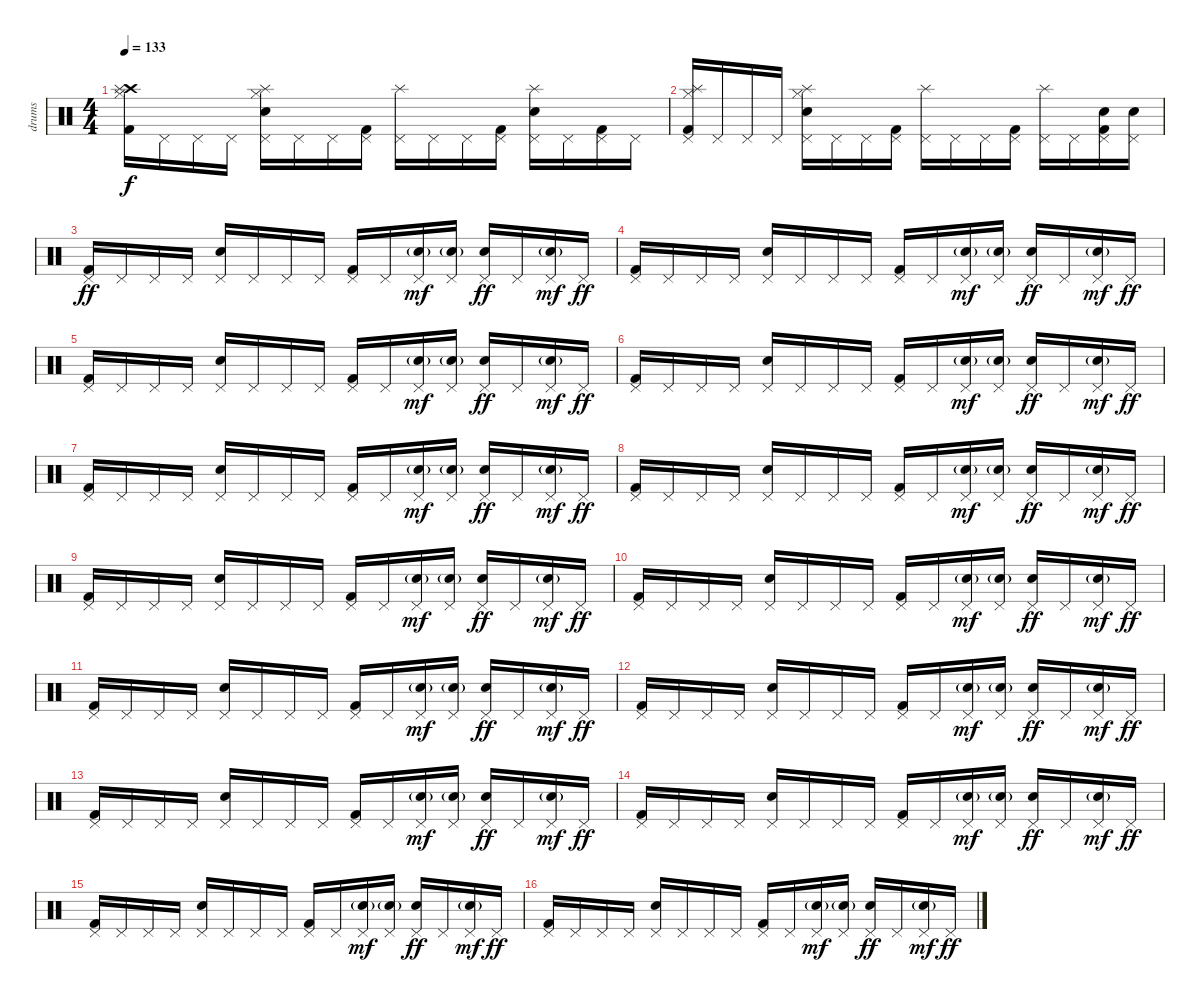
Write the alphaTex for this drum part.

\track ("drums" "drums") {instrument percussion}
\staff {score}
\articulation defaults
\ts (4 4)
\tempo 133
\clef neutral
\ks c
("Kick (hit) 2" "Hi-Hat (closed)" "Crash high (hit)" "Splash (hit)").16{dy f} "Pedal Hi-Hat (hit)".16 "Pedal Hi-Hat (hit)".16 "Pedal Hi-Hat (hit)".16 ("Snare (hit) 2" "Hi-Hat (closed)" "Pedal Hi-Hat (hit)" "Splash (hit)").16 "Pedal Hi-Hat (hit)".16 "Pedal Hi-Hat (hit)".16 ("Kick (hit) 2" "Pedal Hi-Hat (hit)").16 ("Pedal Hi-Hat (hit)" "Splash (hit)").16 "Pedal Hi-Hat (hit)".16 "Pedal Hi-Hat (hit)".16 ("Kick (hit) 2" "Pedal Hi-Hat (hit)").16 ("Snare (hit) 2" "Pedal Hi-Hat (hit)" "Splash (hit)").16 "Pedal Hi-Hat (hit)".16 ("Kick (hit) 2" "Pedal Hi-Hat (hit)").16 "Pedal Hi-Hat (hit)".16 |
("Kick (hit) 2" "Hi-Hat (closed)" "Pedal Hi-Hat (hit)" "Splash (hit)").16 "Pedal Hi-Hat (hit)".16 "Pedal Hi-Hat (hit)".16 "Pedal Hi-Hat (hit)".16 ("Snare (hit) 2" "Hi-Hat (closed)" "Pedal Hi-Hat (hit)" "Splash (hit)").16 "Pedal Hi-Hat (hit)".16 "Pedal Hi-Hat (hit)".16 ("Kick (hit) 2" "Pedal Hi-Hat (hit)").16 ("Pedal Hi-Hat (hit)" "Splash (hit)").16 "Pedal Hi-Hat (hit)".16 "Pedal Hi-Hat (hit)".16 ("Kick (hit) 2" "Pedal Hi-Hat (hit)").16 ("Pedal Hi-Hat (hit)" "Splash (hit)").16 "Pedal Hi-Hat (hit)".16 ("Snare (hit) 2" "Kick (hit) 2" "Pedal Hi-Hat (hit)").16 ("Snare (hit) 2" "Pedal Hi-Hat (hit)").16 |
("Kick (hit) 2" "Pedal Hi-Hat (hit)").16{dy ff} "Pedal Hi-Hat (hit)".16 "Pedal Hi-Hat (hit)".16 "Pedal Hi-Hat (hit)".16 ("Snare (hit) 2" "Pedal Hi-Hat (hit)").16 "Pedal Hi-Hat (hit)".16 "Pedal Hi-Hat (hit)".16 "Pedal Hi-Hat (hit)".16 ("Kick (hit) 2" "Pedal Hi-Hat (hit)").16 "Pedal Hi-Hat (hit)".16 ("Pedal Hi-Hat (hit)" "Electric Snare (hit)"{g}).16{dy mf} ("Pedal Hi-Hat (hit)" "Electric Snare (hit)"{g}).16 ("Snare (hit) 2" "Pedal Hi-Hat (hit)").16{dy ff} "Pedal Hi-Hat (hit)".16 ("Pedal Hi-Hat (hit)" "Electric Snare (hit)"{g}).16{dy mf} "Pedal Hi-Hat (hit)".16{dy ff} |
("Kick (hit) 2" "Pedal Hi-Hat (hit)").16 "Pedal Hi-Hat (hit)".16 "Pedal Hi-Hat (hit)".16 "Pedal Hi-Hat (hit)".16 ("Snare (hit) 2" "Pedal Hi-Hat (hit)").16 "Pedal Hi-Hat (hit)".16 "Pedal Hi-Hat (hit)".16 "Pedal Hi-Hat (hit)".16 ("Kick (hit) 2" "Pedal Hi-Hat (hit)").16 "Pedal Hi-Hat (hit)".16 ("Pedal Hi-Hat (hit)" "Electric Snare (hit)"{g}).16{dy mf} ("Pedal Hi-Hat (hit)" "Electric Snare (hit)"{g}).16 ("Snare (hit) 2" "Pedal Hi-Hat (hit)").16{dy ff} "Pedal Hi-Hat (hit)".16 ("Pedal Hi-Hat (hit)" "Electric Snare (hit)"{g}).16{dy mf} "Pedal Hi-Hat (hit)".16{dy ff} |
("Kick (hit) 2" "Pedal Hi-Hat (hit)").16 "Pedal Hi-Hat (hit)".16 "Pedal Hi-Hat (hit)".16 "Pedal Hi-Hat (hit)".16 ("Snare (hit) 2" "Pedal Hi-Hat (hit)").16 "Pedal Hi-Hat (hit)".16 "Pedal Hi-Hat (hit)".16 "Pedal Hi-Hat (hit)".16 ("Kick (hit) 2" "Pedal Hi-Hat (hit)").16 "Pedal Hi-Hat (hit)".16 ("Pedal Hi-Hat (hit)" "Electric Snare (hit)"{g}).16{dy mf} ("Pedal Hi-Hat (hit)" "Electric Snare (hit)"{g}).16 ("Snare (hit) 2" "Pedal Hi-Hat (hit)").16{dy ff} "Pedal Hi-Hat (hit)".16 ("Pedal Hi-Hat (hit)" "Electric Snare (hit)"{g}).16{dy mf} "Pedal Hi-Hat (hit)".16{dy ff} |
("Kick (hit) 2" "Pedal Hi-Hat (hit)").16 "Pedal Hi-Hat (hit)".16 "Pedal Hi-Hat (hit)".16 "Pedal Hi-Hat (hit)".16 ("Snare (hit) 2" "Pedal Hi-Hat (hit)").16 "Pedal Hi-Hat (hit)".16 "Pedal Hi-Hat (hit)".16 "Pedal Hi-Hat (hit)".16 ("Kick (hit) 2" "Pedal Hi-Hat (hit)").16 "Pedal Hi-Hat (hit)".16 ("Pedal Hi-Hat (hit)" "Electric Snare (hit)"{g}).16{dy mf} ("Pedal Hi-Hat (hit)" "Electric Snare (hit)"{g}).16 ("Snare (hit) 2" "Pedal Hi-Hat (hit)").16{dy ff} "Pedal Hi-Hat (hit)".16 ("Pedal Hi-Hat (hit)" "Electric Snare (hit)"{g}).16{dy mf} "Pedal Hi-Hat (hit)".16{dy ff} |
("Kick (hit) 2" "Pedal Hi-Hat (hit)").16 "Pedal Hi-Hat (hit)".16 "Pedal Hi-Hat (hit)".16 "Pedal Hi-Hat (hit)".16 ("Snare (hit) 2" "Pedal Hi-Hat (hit)").16 "Pedal Hi-Hat (hit)".16 "Pedal Hi-Hat (hit)".16 "Pedal Hi-Hat (hit)".16 ("Kick (hit) 2" "Pedal Hi-Hat (hit)").16 "Pedal Hi-Hat (hit)".16 ("Pedal Hi-Hat (hit)" "Electric Snare (hit)"{g}).16{dy mf} ("Pedal Hi-Hat (hit)" "Electric Snare (hit)"{g}).16 ("Snare (hit) 2" "Pedal Hi-Hat (hit)").16{dy ff} "Pedal Hi-Hat (hit)".16 ("Pedal Hi-Hat (hit)" "Electric Snare (hit)"{g}).16{dy mf} "Pedal Hi-Hat (hit)".16{dy ff} |
("Kick (hit) 2" "Pedal Hi-Hat (hit)").16 "Pedal Hi-Hat (hit)".16 "Pedal Hi-Hat (hit)".16 "Pedal Hi-Hat (hit)".16 ("Snare (hit) 2" "Pedal Hi-Hat (hit)").16 "Pedal Hi-Hat (hit)".16 "Pedal Hi-Hat (hit)".16 "Pedal Hi-Hat (hit)".16 ("Kick (hit) 2" "Pedal Hi-Hat (hit)").16 "Pedal Hi-Hat (hit)".16 ("Pedal Hi-Hat (hit)" "Electric Snare (hit)"{g}).16{dy mf} ("Pedal Hi-Hat (hit)" "Electric Snare (hit)"{g}).16 ("Snare (hit) 2" "Pedal Hi-Hat (hit)").16{dy ff} "Pedal Hi-Hat (hit)".16 ("Pedal Hi-Hat (hit)" "Electric Snare (hit)"{g}).16{dy mf} "Pedal Hi-Hat (hit)".16{dy ff} |
("Kick (hit) 2" "Pedal Hi-Hat (hit)").16 "Pedal Hi-Hat (hit)".16 "Pedal Hi-Hat (hit)".16 "Pedal Hi-Hat (hit)".16 ("Snare (hit) 2" "Pedal Hi-Hat (hit)").16 "Pedal Hi-Hat (hit)".16 "Pedal Hi-Hat (hit)".16 "Pedal Hi-Hat (hit)".16 ("Kick (hit) 2" "Pedal Hi-Hat (hit)").16 "Pedal Hi-Hat (hit)".16 ("Pedal Hi-Hat (hit)" "Electric Snare (hit)"{g}).16{dy mf} ("Pedal Hi-Hat (hit)" "Electric Snare (hit)"{g}).16 ("Snare (hit) 2" "Pedal Hi-Hat (hit)").16{dy ff} "Pedal Hi-Hat (hit)".16 ("Pedal Hi-Hat (hit)" "Electric Snare (hit)"{g}).16{dy mf} "Pedal Hi-Hat (hit)".16{dy ff} |
("Kick (hit) 2" "Pedal Hi-Hat (hit)").16 "Pedal Hi-Hat (hit)".16 "Pedal Hi-Hat (hit)".16 "Pedal Hi-Hat (hit)".16 ("Snare (hit) 2" "Pedal Hi-Hat (hit)").16 "Pedal Hi-Hat (hit)".16 "Pedal Hi-Hat (hit)".16 "Pedal Hi-Hat (hit)".16 ("Kick (hit) 2" "Pedal Hi-Hat (hit)").16 "Pedal Hi-Hat (hit)".16 ("Pedal Hi-Hat (hit)" "Electric Snare (hit)"{g}).16{dy mf} ("Pedal Hi-Hat (hit)" "Electric Snare (hit)"{g}).16 ("Snare (hit) 2" "Pedal Hi-Hat (hit)").16{dy ff} "Pedal Hi-Hat (hit)".16 ("Pedal Hi-Hat (hit)" "Electric Snare (hit)"{g}).16{dy mf} "Pedal Hi-Hat (hit)".16{dy ff} |
("Kick (hit) 2" "Pedal Hi-Hat (hit)").16 "Pedal Hi-Hat (hit)".16 "Pedal Hi-Hat (hit)".16 "Pedal Hi-Hat (hit)".16 ("Snare (hit) 2" "Pedal Hi-Hat (hit)").16 "Pedal Hi-Hat (hit)".16 "Pedal Hi-Hat (hit)".16 "Pedal Hi-Hat (hit)".16 ("Kick (hit) 2" "Pedal Hi-Hat (hit)").16 "Pedal Hi-Hat (hit)".16 ("Pedal Hi-Hat (hit)" "Electric Snare (hit)"{g}).16{dy mf} ("Pedal Hi-Hat (hit)" "Electric Snare (hit)"{g}).16 ("Snare (hit) 2" "Pedal Hi-Hat (hit)").16{dy ff} "Pedal Hi-Hat (hit)".16 ("Pedal Hi-Hat (hit)" "Electric Snare (hit)"{g}).16{dy mf} "Pedal Hi-Hat (hit)".16{dy ff} |
("Kick (hit) 2" "Pedal Hi-Hat (hit)").16 "Pedal Hi-Hat (hit)".16 "Pedal Hi-Hat (hit)".16 "Pedal Hi-Hat (hit)".16 ("Snare (hit) 2" "Pedal Hi-Hat (hit)").16 "Pedal Hi-Hat (hit)".16 "Pedal Hi-Hat (hit)".16 "Pedal Hi-Hat (hit)".16 ("Kick (hit) 2" "Pedal Hi-Hat (hit)").16 "Pedal Hi-Hat (hit)".16 ("Pedal Hi-Hat (hit)" "Electric Snare (hit)"{g}).16{dy mf} ("Pedal Hi-Hat (hit)" "Electric Snare (hit)"{g}).16 ("Snare (hit) 2" "Pedal Hi-Hat (hit)").16{dy ff} "Pedal Hi-Hat (hit)".16 ("Pedal Hi-Hat (hit)" "Electric Snare (hit)"{g}).16{dy mf} "Pedal Hi-Hat (hit)".16{dy ff} |
("Kick (hit) 2" "Pedal Hi-Hat (hit)").16 "Pedal Hi-Hat (hit)".16 "Pedal Hi-Hat (hit)".16 "Pedal Hi-Hat (hit)".16 ("Snare (hit) 2" "Pedal Hi-Hat (hit)").16 "Pedal Hi-Hat (hit)".16 "Pedal Hi-Hat (hit)".16 "Pedal Hi-Hat (hit)".16 ("Kick (hit) 2" "Pedal Hi-Hat (hit)").16 "Pedal Hi-Hat (hit)".16 ("Pedal Hi-Hat (hit)" "Electric Snare (hit)"{g}).16{dy mf} ("Pedal Hi-Hat (hit)" "Electric Snare (hit)"{g}).16 ("Snare (hit) 2" "Pedal Hi-Hat (hit)").16{dy ff} "Pedal Hi-Hat (hit)".16 ("Pedal Hi-Hat (hit)" "Electric Snare (hit)"{g}).16{dy mf} "Pedal Hi-Hat (hit)".16{dy ff} |
("Kick (hit) 2" "Pedal Hi-Hat (hit)").16 "Pedal Hi-Hat (hit)".16 "Pedal Hi-Hat (hit)".16 "Pedal Hi-Hat (hit)".16 ("Snare (hit) 2" "Pedal Hi-Hat (hit)").16 "Pedal Hi-Hat (hit)".16 "Pedal Hi-Hat (hit)".16 "Pedal Hi-Hat (hit)".16 ("Kick (hit) 2" "Pedal Hi-Hat (hit)").16 "Pedal Hi-Hat (hit)".16 ("Pedal Hi-Hat (hit)" "Electric Snare (hit)"{g}).16{dy mf} ("Pedal Hi-Hat (hit)" "Electric Snare (hit)"{g}).16 ("Snare (hit) 2" "Pedal Hi-Hat (hit)").16{dy ff} "Pedal Hi-Hat (hit)".16 ("Pedal Hi-Hat (hit)" "Electric Snare (hit)"{g}).16{dy mf} "Pedal Hi-Hat (hit)".16{dy ff} |
("Kick (hit) 2" "Pedal Hi-Hat (hit)").16 "Pedal Hi-Hat (hit)".16 "Pedal Hi-Hat (hit)".16 "Pedal Hi-Hat (hit)".16 ("Snare (hit) 2" "Pedal Hi-Hat (hit)").16 "Pedal Hi-Hat (hit)".16 "Pedal Hi-Hat (hit)".16 "Pedal Hi-Hat (hit)".16 ("Kick (hit) 2" "Pedal Hi-Hat (hit)").16 "Pedal Hi-Hat (hit)".16 ("Pedal Hi-Hat (hit)" "Electric Snare (hit)"{g}).16{dy mf} ("Pedal Hi-Hat (hit)" "Electric Snare (hit)"{g}).16 ("Snare (hit) 2" "Pedal Hi-Hat (hit)").16{dy ff} "Pedal Hi-Hat (hit)".16 ("Pedal Hi-Hat (hit)" "Electric Snare (hit)"{g}).16{dy mf} "Pedal Hi-Hat (hit)".16{dy ff} |
("Kick (hit) 2" "Pedal Hi-Hat (hit)").16 "Pedal Hi-Hat (hit)".16 "Pedal Hi-Hat (hit)".16 "Pedal Hi-Hat (hit)".16 ("Snare (hit) 2" "Pedal Hi-Hat (hit)").16 "Pedal Hi-Hat (hit)".16 "Pedal Hi-Hat (hit)".16 "Pedal Hi-Hat (hit)".16 ("Kick (hit) 2" "Pedal Hi-Hat (hit)").16 "Pedal Hi-Hat (hit)".16 ("Pedal Hi-Hat (hit)" "Electric Snare (hit)"{g}).16{dy mf} ("Pedal Hi-Hat (hit)" "Electric Snare (hit)"{g}).16 ("Snare (hit) 2" "Pedal Hi-Hat (hit)").16{dy ff} "Pedal Hi-Hat (hit)".16 ("Pedal Hi-Hat (hit)" "Electric Snare (hit)"{g}).16{dy mf} "Pedal Hi-Hat (hit)".16{dy ff}
